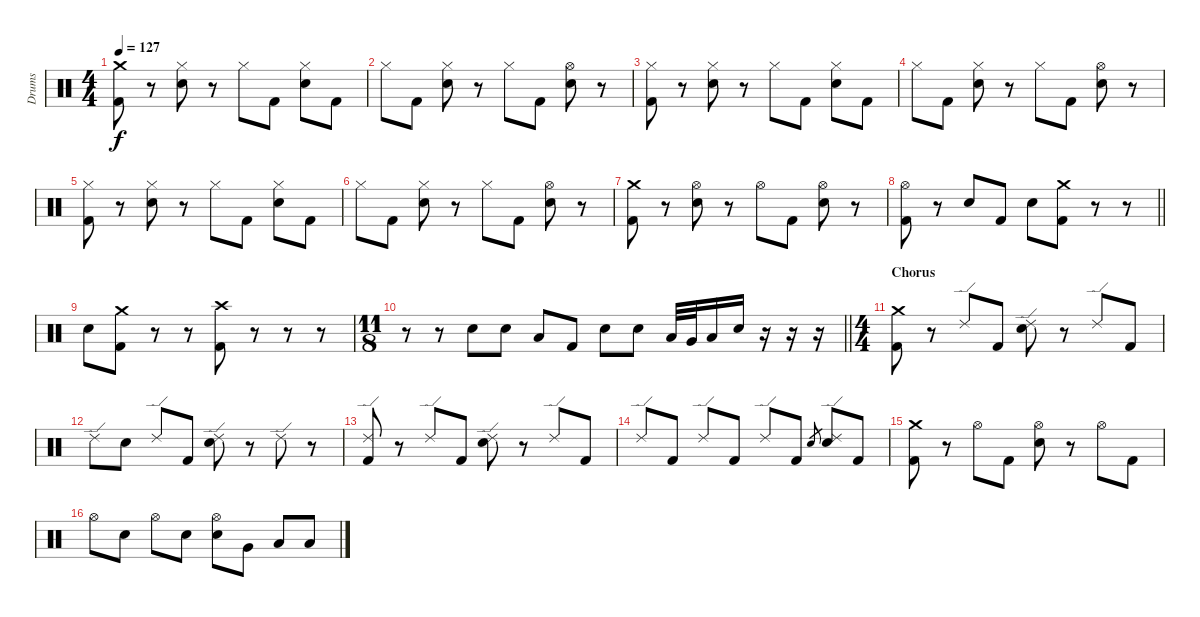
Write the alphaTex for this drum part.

\track ("Drums" "Drums") {instrument percussion}
\staff {score}
\articulation defaults
\ts (4 4)
\tempo 127
\clef neutral
\ks c
("Crash medium (hit)" "Kick (hit) 2").8{dy f} r.8 ("Hi-Hat (closed)" "Electric Snare (hit)").8 r.8 "Hi-Hat (closed)".8 "Kick (hit) 2".8 ("Hi-Hat (closed)" "Electric Snare (hit)").8 "Kick (hit) 2".8 |
"Hi-Hat (closed)".8 "Kick (hit) 2".8 ("Hi-Hat (closed)" "Electric Snare (hit)").8 r.8 "Hi-Hat (closed)".8 "Kick (hit) 2".8 ("Hi-Hat (open)" "Electric Snare (hit)").8 r.8 |
("Hi-Hat (closed)" "Kick (hit) 2").8 r.8 ("Hi-Hat (closed)" "Electric Snare (hit)").8 r.8 "Hi-Hat (closed)".8 "Kick (hit) 2".8 ("Hi-Hat (closed)" "Electric Snare (hit)").8 "Kick (hit) 2".8 |
"Hi-Hat (closed)".8 "Kick (hit) 2".8 ("Hi-Hat (closed)" "Electric Snare (hit)").8 r.8 "Hi-Hat (closed)".8 "Kick (hit) 2".8 ("Hi-Hat (open)" "Electric Snare (hit)").8 r.8 |
("Hi-Hat (closed)" "Kick (hit) 2").8 r.8 ("Hi-Hat (closed)" "Electric Snare (hit)").8 r.8 "Hi-Hat (closed)".8 "Kick (hit) 2".8 ("Hi-Hat (closed)" "Electric Snare (hit)").8 "Kick (hit) 2".8 |
"Hi-Hat (closed)".8 "Kick (hit) 2".8 ("Hi-Hat (closed)" "Electric Snare (hit)").8 r.8 "Hi-Hat (closed)".8 "Kick (hit) 2".8 ("Hi-Hat (open)" "Electric Snare (hit)").8 r.8 |
("Crash medium (hit)" "Kick (hit) 2").8{volume 12} r.8 ("Hi-Hat (open)" "Electric Snare (hit)").8 r.8 "Hi-Hat (open)".8 "Kick (hit) 2".8 ("Hi-Hat (open)" "Electric Snare (hit)").8 r.8 |
\barLineRight lightlight
("Hi-Hat (open)" "Kick (hit) 2").8 r.8 "Electric Snare (hit)".8 "Kick (hit) 2".8 "Electric Snare (hit)".8 ("Crash medium (hit)" "Kick (hit) 2").8 r.8 r.8 |
"Electric Snare (hit)".8 ("Crash medium (hit)" "Kick (hit) 2").8 r.8 r.8 ("Crash high (hit)" "Kick (hit) 2").8 r.8 r.8 r.8 |
\ts (11 8)
\barLineRight lightlight
r.8 r.8 "Electric Snare (hit)".8 "Electric Snare (hit)".8 "Low Tom (hit)".8 "Kick (hit) 2".8 "Electric Snare (hit)".8 "Electric Snare (hit)".8 "Low Tom (hit)".32 "Very Low Tom (hit)".32 "Low Floor Tom (hit)".16 "Electric Snare (hit)".16 r.16 r.16 r.16 |
\ts (4 4)
\section ("" "Chorus")
("Crash medium (hit)" "Kick (hit) 2").8 r.8 "Ride (edge) 2".8 "Kick (hit) 2".8 ("Ride (edge) 2" "Electric Snare (hit)").8 r.8 "Ride (edge) 2".8 "Kick (hit) 2".8 |
"Ride (edge) 2".8 "Electric Snare (hit)".8 "Ride (edge) 2".8 "Kick (hit) 2".8 ("Ride (edge) 2" "Electric Snare (hit)").8 r.8 "Ride (edge) 2".8 r.8 |
("Ride (edge) 2" "Kick (hit) 2").8 r.8 "Ride (edge) 2".8 "Kick (hit) 2".8 ("Ride (edge) 2" "Electric Snare (hit)").8 r.8 "Ride (edge) 2".8 "Kick (hit) 2".8 |
"Ride (edge) 2".8 "Kick (hit) 2".8 "Ride (edge) 2".8 "Kick (hit) 2".8 "Ride (edge) 2".8 "Kick (hit) 2".8 "Electric Snare (hit)".8{gr} ("Ride (edge) 2" "Electric Snare (hit)").8 "Kick (hit) 2".8 |
("Crash medium (hit)" "Kick (hit) 2").8 r.8 "Hi-Hat (open)".8 "Kick (hit) 2".8 ("Hi-Hat (open)" "Electric Snare (hit)").8 r.8 "Hi-Hat (open)".8 "Kick (hit) 2".8 |
"Hi-Hat (open)".8 "Electric Snare (hit)".8 "Hi-Hat (open)".8 "Electric Snare (hit)".8 ("Hi-Hat (open)" "Electric Snare (hit)").8 "Very Low Tom (hit)".8 "Low Tom (hit)".8 "Low Tom (hit)".8
